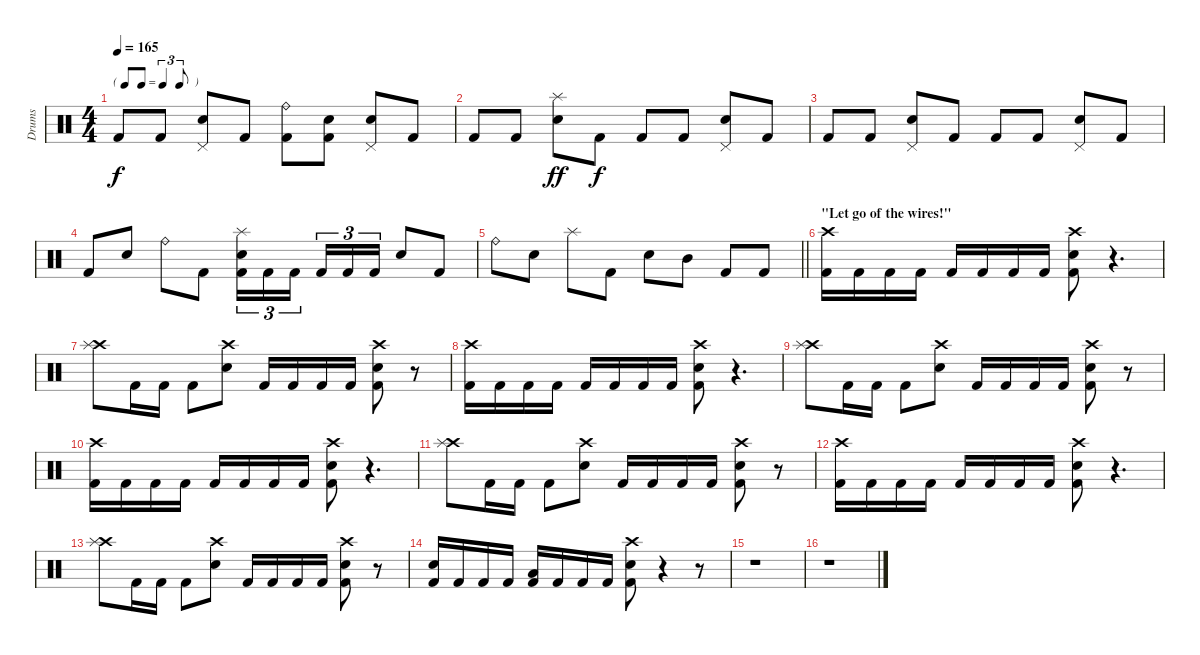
\track ("Drums" "Drums") {instrument percussion}
\staff {score}
\articulation defaults
\ts (4 4)
\tf triplet8th
\tempo 165
\clef neutral
\ks c "Kick (hit) 2".8{dy f} "Kick (hit) 2".8
("Pedal Hi-Hat (hit)" "Electric Snare (hit)").8 "Kick (hit) 2".8 ("Ride (bell)" "Kick (hit) 2").8 ("Electric Snare (hit)" "Kick (hit) 2").8 ("Pedal Hi-Hat (hit)" "Electric Snare (hit)").8 "Kick (hit) 2".8 |
"Kick (hit) 2".8 "Kick (hit) 2".8 ("Splash (hit)" "Electric Snare (hit)").8{dy ff} "Kick (hit) 2".8{dy f} "Kick (hit) 2".8 "Kick (hit) 2".8 ("Pedal Hi-Hat (hit)" "Electric Snare (hit)").8 "Kick (hit) 2".8 |
"Kick (hit) 2".8 "Kick (hit) 2".8 ("Pedal Hi-Hat (hit)" "Electric Snare (hit)").8 "Kick (hit) 2".8 "Kick (hit) 2".8 "Kick (hit) 2".8 ("Pedal Hi-Hat (hit)" "Electric Snare (hit)").8 "Kick (hit) 2".8 |
"Kick (hit) 2".8 "Electric Snare (hit)".8 "Ride (bell)".8 "Kick (hit) 2".8 ("Splash (hit)" "Electric Snare (hit)" "Kick (hit) 2").16{tu (3 2)} "Kick (hit) 2".16{tu (3 2)} "Kick (hit) 2".16{tu (3 2)} "Kick (hit) 2".16{tu (3 2)} "Kick (hit) 2".16{tu (3 2)} "Kick (hit) 2".16{tu (3 2)} "Electric Snare (hit)".8 "Kick (hit) 2".8 |
\barLineRight lightlight "Ride (bell)".8 "Electric Snare (hit)".8 "Splash (hit)".8 "Kick (hit) 2".8 "Electric Snare (hit)".8 "Mid Tom (hit)".8 "Kick (hit) 2".8 "Kick (hit) 2".8
|
\section ("" "\"Let go of the wires!\"")
("Crash high (hit)" "Kick (hit) 2").16 "Kick (hit) 2".16 "Kick (hit) 2".16 "Kick (hit) 2".16 "Kick (hit) 2".16 "Kick (hit) 2".16 "Kick (hit) 2".16 "Kick (hit) 2".16 ("Crash high (hit)" "Electric Snare (hit)" "Kick (hit) 2").8 r.4{d} |
("Crash high (hit)" "Splash (hit)").8 "Kick (hit) 2".16 "Kick (hit) 2".16 "Kick (hit) 2".8 ("Crash high (hit)" "Electric Snare (hit)").8 "Kick (hit) 2".16 "Kick (hit) 2".16 "Kick (hit) 2".16 "Kick (hit) 2".16 ("Crash high (hit)" "Electric Snare (hit)" "Kick (hit) 2").8 r.8 |
("Crash high (hit)" "Kick (hit) 2").16 "Kick (hit) 2".16 "Kick (hit) 2".16 "Kick (hit) 2".16 "Kick (hit) 2".16 "Kick (hit) 2".16 "Kick (hit) 2".16 "Kick (hit) 2".16 ("Crash high (hit)" "Electric Snare (hit)" "Kick (hit) 2").8 r.4{d} |
("Crash high (hit)" "Splash (hit)").8 "Kick (hit) 2".16 "Kick (hit) 2".16 "Kick (hit) 2".8 ("Crash high (hit)" "Electric Snare (hit)").8 "Kick (hit) 2".16 "Kick (hit) 2".16 "Kick (hit) 2".16 "Kick (hit) 2".16 ("Crash high (hit)" "Electric Snare (hit)" "Kick (hit) 2").8 r.8 |
("Crash high (hit)" "Kick (hit) 2").16 "Kick (hit) 2".16 "Kick (hit) 2".16 "Kick (hit) 2".16 "Kick (hit) 2".16 "Kick (hit) 2".16 "Kick (hit) 2".16 "Kick (hit) 2".16 ("Crash high (hit)" "Electric Snare (hit)" "Kick (hit) 2").8 r.4{d} |
("Crash high (hit)" "Splash (hit)").8 "Kick (hit) 2".16 "Kick (hit) 2".16 "Kick (hit) 2".8 ("Crash high (hit)" "Electric Snare (hit)").8 "Kick (hit) 2".16 "Kick (hit) 2".16 "Kick (hit) 2".16 "Kick (hit) 2".16 ("Crash high (hit)" "Electric Snare (hit)" "Kick (hit) 2").8 r.8 |
("Crash high (hit)" "Kick (hit) 2").16 "Kick (hit) 2".16 "Kick (hit) 2".16 "Kick (hit) 2".16 "Kick (hit) 2".16 "Kick (hit) 2".16 "Kick (hit) 2".16 "Kick (hit) 2".16 ("Crash high (hit)" "Electric Snare (hit)" "Kick (hit) 2").8 r.4{d} |
("Crash high (hit)" "Splash (hit)").8 "Kick (hit) 2".16 "Kick (hit) 2".16 "Kick (hit) 2".8 ("Crash high (hit)" "Electric Snare (hit)").8 "Kick (hit) 2".16 "Kick (hit) 2".16 "Kick (hit) 2".16 "Kick (hit) 2".16 ("Crash high (hit)" "Electric Snare (hit)" "Kick (hit) 2").8 r.8 |
("Electric Snare (hit)" "Kick (hit) 2").16 "Kick (hit) 2".16 "Kick (hit) 2".16 "Kick (hit) 2".16 ("Low Tom (hit)" "Kick (hit) 2").16 "Kick (hit) 2".16 "Kick (hit) 2".16 "Kick (hit) 2".16 ("Crash high (hit)" "Electric Snare (hit)" "Kick (hit) 2").8 r.4 r.8 |
r.1 |
r.1
